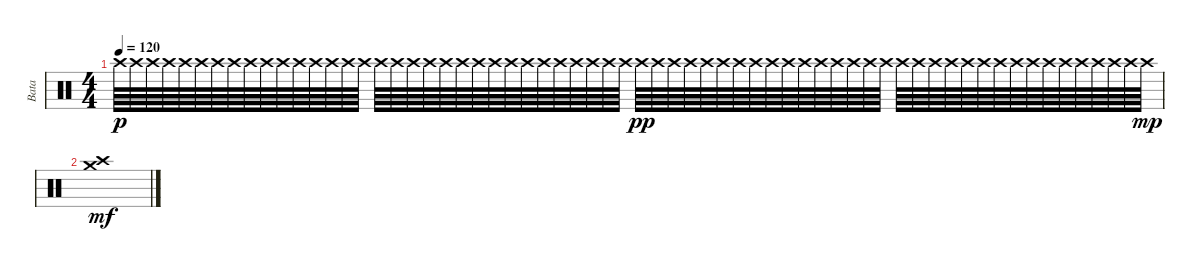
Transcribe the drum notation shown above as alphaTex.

\track ("Bata" "Bata") {instrument percussion}
\staff {score}
\articulation defaults
\ts (4 4)
\tempo 120
\clef neutral
\ks c "Crash high (hit)".64{dy p} "Crash high (hit)".64 "Crash high (hit)".64 "Crash high (hit)".64 "Crash high (hit)".64 "Crash high (hit)".64 "Crash high (hit)".64 "Crash high (hit)".64 "Crash high (hit)".64 "Crash high (hit)".64 "Crash high (hit)".64 "Crash high (hit)".64 "Crash high (hit)".64 "Crash high (hit)".64 "Crash high (hit)".64 "Crash high (hit)".64 "Crash high (hit)".64 "Crash high (hit)".64 "Crash high (hit)".64 "Crash high (hit)".64 "Crash high (hit)".64 "Crash high (hit)".64 "Crash high (hit)".64 "Crash high (hit)".64 "Crash high (hit)".64 "Crash high (hit)".64 "Crash high (hit)".64 "Crash high (hit)".64 "Crash high (hit)".64 "Crash high (hit)".64 "Crash high (hit)".64 "Crash high (hit)".64 "Crash high (hit)".64{dy pp} "Crash high (hit)".64 "Crash high (hit)".64 "Crash high (hit)".64 "Crash high (hit)".64 "Crash high (hit)".64 "Crash high (hit)".64 "Crash high (hit)".64 "Crash high (hit)".64 "Crash high (hit)".64 "Crash high (hit)".64 "Crash high (hit)".64 "Crash high (hit)".64 "Crash high (hit)".64 "Crash high (hit)".64 "Crash high (hit)".64 "Crash high (hit)".64 "Crash high (hit)".64 "Crash high (hit)".64 "Crash high (hit)".64 "Crash high (hit)".64 "Crash high (hit)".64 "Crash high (hit)".64 "Crash high (hit)".64 "Crash high (hit)".64 "Crash high (hit)".64 "Crash high (hit)".64 "Crash high (hit)".64 "Crash high (hit)".64 "Crash high (hit)".64 "Crash high (hit)".64 "Crash high (hit)".64{dy mp}
|
("Crash medium (hit)" "Crash high (hit)").1{dy mf}
